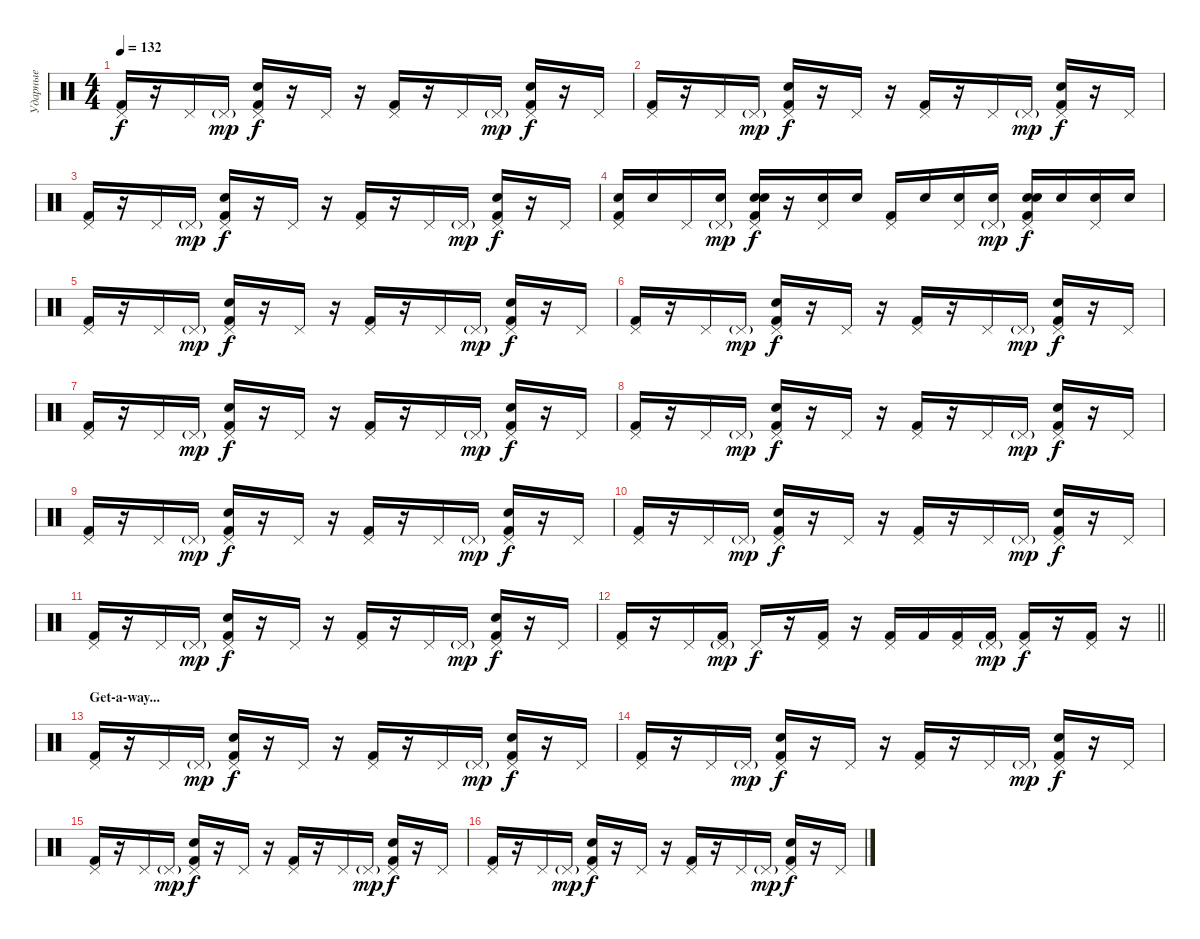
\track ("Ударные" "Ударные") {instrument percussion}
\staff {score}
\articulation defaults
\ts (4 4)
\tempo 132
\clef neutral
\ks c
("Pedal Hi-Hat (hit)" "Kick (hit) 2").16{dy f} r.16 "Pedal Hi-Hat (hit)".16 "Pedal Hi-Hat (hit)"{g}.16{dy mp} ("Pedal Hi-Hat (hit)" "Snare (hit) 2" "Kick (hit) 2").16{dy f} r.16 "Pedal Hi-Hat (hit)".16 r.16 ("Pedal Hi-Hat (hit)" "Kick (hit) 2").16 r.16 "Pedal Hi-Hat (hit)".16 "Pedal Hi-Hat (hit)"{g}.16{dy mp} ("Pedal Hi-Hat (hit)" "Snare (hit) 2" "Kick (hit) 2").16{dy f} r.16 "Pedal Hi-Hat (hit)".16 |
("Pedal Hi-Hat (hit)" "Kick (hit) 2").16 r.16 "Pedal Hi-Hat (hit)".16 "Pedal Hi-Hat (hit)"{g}.16{dy mp} ("Pedal Hi-Hat (hit)" "Snare (hit) 2" "Kick (hit) 2").16{dy f} r.16 "Pedal Hi-Hat (hit)".16 r.16 ("Pedal Hi-Hat (hit)" "Kick (hit) 2").16 r.16 "Pedal Hi-Hat (hit)".16 "Pedal Hi-Hat (hit)"{g}.16{dy mp} ("Pedal Hi-Hat (hit)" "Snare (hit) 2" "Kick (hit) 2").16{dy f} r.16 "Pedal Hi-Hat (hit)".16 |
("Pedal Hi-Hat (hit)" "Kick (hit) 2").16 r.16 "Pedal Hi-Hat (hit)".16 "Pedal Hi-Hat (hit)"{g}.16{dy mp} ("Pedal Hi-Hat (hit)" "Snare (hit) 2" "Kick (hit) 2").16{dy f} r.16 "Pedal Hi-Hat (hit)".16 r.16 ("Pedal Hi-Hat (hit)" "Kick (hit) 2").16 r.16 "Pedal Hi-Hat (hit)".16 "Pedal Hi-Hat (hit)"{g}.16{dy mp} ("Pedal Hi-Hat (hit)" "Snare (hit) 2" "Kick (hit) 2").16{dy f} r.16 "Pedal Hi-Hat (hit)".16 |
("Pedal Hi-Hat (hit)" "Electric Snare (hit)" "Kick (hit) 2").16 "Electric Snare (hit)".16 "Pedal Hi-Hat (hit)".16 ("Pedal Hi-Hat (hit)"{g} "Electric Snare (hit)").16{dy mp} ("Pedal Hi-Hat (hit)" "Electric Snare (hit)" "Snare (hit) 2" "Kick (hit) 2").16{dy f} r.16 ("Pedal Hi-Hat (hit)" "Electric Snare (hit)").16 "Electric Snare (hit)".16 ("Pedal Hi-Hat (hit)" "Kick (hit) 2").16 "Electric Snare (hit)".16 ("Pedal Hi-Hat (hit)" "Electric Snare (hit)").16 ("Pedal Hi-Hat (hit)"{g} "Electric Snare (hit)").16{dy mp} ("Pedal Hi-Hat (hit)" "Electric Snare (hit)" "Snare (hit) 2" "Kick (hit) 2").16{dy f} "Electric Snare (hit)".16 ("Pedal Hi-Hat (hit)" "Electric Snare (hit)").16 "Electric Snare (hit)".16 |
("Pedal Hi-Hat (hit)" "Kick (hit) 2").16 r.16 "Pedal Hi-Hat (hit)".16 "Pedal Hi-Hat (hit)"{g}.16{dy mp} ("Pedal Hi-Hat (hit)" "Snare (hit) 2" "Kick (hit) 2").16{dy f} r.16 "Pedal Hi-Hat (hit)".16 r.16 ("Pedal Hi-Hat (hit)" "Kick (hit) 2").16 r.16 "Pedal Hi-Hat (hit)".16 "Pedal Hi-Hat (hit)"{g}.16{dy mp} ("Pedal Hi-Hat (hit)" "Snare (hit) 2" "Kick (hit) 2").16{dy f} r.16 "Pedal Hi-Hat (hit)".16 |
("Pedal Hi-Hat (hit)" "Kick (hit) 2").16 r.16 "Pedal Hi-Hat (hit)".16 "Pedal Hi-Hat (hit)"{g}.16{dy mp} ("Pedal Hi-Hat (hit)" "Snare (hit) 2" "Kick (hit) 2").16{dy f} r.16 "Pedal Hi-Hat (hit)".16 r.16 ("Pedal Hi-Hat (hit)" "Kick (hit) 2").16 r.16 "Pedal Hi-Hat (hit)".16 "Pedal Hi-Hat (hit)"{g}.16{dy mp} ("Pedal Hi-Hat (hit)" "Snare (hit) 2" "Kick (hit) 2").16{dy f} r.16 "Pedal Hi-Hat (hit)".16 |
("Pedal Hi-Hat (hit)" "Kick (hit) 2").16 r.16 "Pedal Hi-Hat (hit)".16 "Pedal Hi-Hat (hit)"{g}.16{dy mp} ("Pedal Hi-Hat (hit)" "Snare (hit) 2" "Kick (hit) 2").16{dy f} r.16 "Pedal Hi-Hat (hit)".16 r.16 ("Pedal Hi-Hat (hit)" "Kick (hit) 2").16 r.16 "Pedal Hi-Hat (hit)".16 "Pedal Hi-Hat (hit)"{g}.16{dy mp} ("Pedal Hi-Hat (hit)" "Snare (hit) 2" "Kick (hit) 2").16{dy f} r.16 "Pedal Hi-Hat (hit)".16 |
("Pedal Hi-Hat (hit)" "Kick (hit) 2").16 r.16 "Pedal Hi-Hat (hit)".16 "Pedal Hi-Hat (hit)"{g}.16{dy mp} ("Pedal Hi-Hat (hit)" "Snare (hit) 2" "Kick (hit) 2").16{dy f} r.16 "Pedal Hi-Hat (hit)".16 r.16 ("Pedal Hi-Hat (hit)" "Kick (hit) 2").16 r.16 "Pedal Hi-Hat (hit)".16 "Pedal Hi-Hat (hit)"{g}.16{dy mp} ("Pedal Hi-Hat (hit)" "Snare (hit) 2" "Kick (hit) 2").16{dy f} r.16 "Pedal Hi-Hat (hit)".16 |
("Pedal Hi-Hat (hit)" "Kick (hit) 2").16 r.16 "Pedal Hi-Hat (hit)".16 "Pedal Hi-Hat (hit)"{g}.16{dy mp} ("Pedal Hi-Hat (hit)" "Snare (hit) 2" "Kick (hit) 2").16{dy f} r.16 "Pedal Hi-Hat (hit)".16 r.16 ("Pedal Hi-Hat (hit)" "Kick (hit) 2").16 r.16 "Pedal Hi-Hat (hit)".16 "Pedal Hi-Hat (hit)"{g}.16{dy mp} ("Pedal Hi-Hat (hit)" "Snare (hit) 2" "Kick (hit) 2").16{dy f} r.16 "Pedal Hi-Hat (hit)".16 |
("Pedal Hi-Hat (hit)" "Kick (hit) 2").16 r.16 "Pedal Hi-Hat (hit)".16 "Pedal Hi-Hat (hit)"{g}.16{dy mp} ("Pedal Hi-Hat (hit)" "Snare (hit) 2" "Kick (hit) 2").16{dy f} r.16 "Pedal Hi-Hat (hit)".16 r.16 ("Pedal Hi-Hat (hit)" "Kick (hit) 2").16 r.16 "Pedal Hi-Hat (hit)".16 "Pedal Hi-Hat (hit)"{g}.16{dy mp} ("Pedal Hi-Hat (hit)" "Snare (hit) 2" "Kick (hit) 2").16{dy f} r.16 "Pedal Hi-Hat (hit)".16 |
("Pedal Hi-Hat (hit)" "Kick (hit) 2").16 r.16 "Pedal Hi-Hat (hit)".16 "Pedal Hi-Hat (hit)"{g}.16{dy mp} ("Pedal Hi-Hat (hit)" "Snare (hit) 2" "Kick (hit) 2").16{dy f} r.16 "Pedal Hi-Hat (hit)".16 r.16 ("Pedal Hi-Hat (hit)" "Kick (hit) 2").16 r.16 "Pedal Hi-Hat (hit)".16 "Pedal Hi-Hat (hit)"{g}.16{dy mp} ("Pedal Hi-Hat (hit)" "Snare (hit) 2" "Kick (hit) 2").16{dy f} r.16 "Pedal Hi-Hat (hit)".16 |
\barLineRight lightlight
("Pedal Hi-Hat (hit)" "Kick (hit) 2").16 r.16 "Pedal Hi-Hat (hit)".16 ("Pedal Hi-Hat (hit)"{g} "Kick (hit) 2").16{dy mp} "Pedal Hi-Hat (hit)".16{dy f} r.16 ("Pedal Hi-Hat (hit)" "Kick (hit) 2").16 r.16 ("Pedal Hi-Hat (hit)" "Kick (hit) 2").16 "Kick (hit) 2".16 ("Pedal Hi-Hat (hit)" "Kick (hit) 2").16 ("Pedal Hi-Hat (hit)"{g} "Kick (hit) 2").16{dy mp} ("Pedal Hi-Hat (hit)" "Kick (hit) 2").16{dy f} r.16 ("Pedal Hi-Hat (hit)" "Kick (hit) 2").16 r.16 |
\section ("" "Get-a-way...")
("Pedal Hi-Hat (hit)" "Kick (hit) 2").16 r.16 "Pedal Hi-Hat (hit)".16 "Pedal Hi-Hat (hit)"{g}.16{dy mp} ("Pedal Hi-Hat (hit)" "Snare (hit) 2" "Kick (hit) 2").16{dy f} r.16 "Pedal Hi-Hat (hit)".16 r.16 ("Pedal Hi-Hat (hit)" "Kick (hit) 2").16 r.16 "Pedal Hi-Hat (hit)".16 "Pedal Hi-Hat (hit)"{g}.16{dy mp} ("Pedal Hi-Hat (hit)" "Snare (hit) 2" "Kick (hit) 2").16{dy f} r.16 "Pedal Hi-Hat (hit)".16 |
("Pedal Hi-Hat (hit)" "Kick (hit) 2").16 r.16 "Pedal Hi-Hat (hit)".16 "Pedal Hi-Hat (hit)"{g}.16{dy mp} ("Pedal Hi-Hat (hit)" "Snare (hit) 2" "Kick (hit) 2").16{dy f} r.16 "Pedal Hi-Hat (hit)".16 r.16 ("Pedal Hi-Hat (hit)" "Kick (hit) 2").16 r.16 "Pedal Hi-Hat (hit)".16 "Pedal Hi-Hat (hit)"{g}.16{dy mp} ("Pedal Hi-Hat (hit)" "Snare (hit) 2" "Kick (hit) 2").16{dy f} r.16 "Pedal Hi-Hat (hit)".16 |
("Pedal Hi-Hat (hit)" "Kick (hit) 2").16 r.16 "Pedal Hi-Hat (hit)".16 "Pedal Hi-Hat (hit)"{g}.16{dy mp} ("Pedal Hi-Hat (hit)" "Snare (hit) 2" "Kick (hit) 2").16{dy f} r.16 "Pedal Hi-Hat (hit)".16 r.16 ("Pedal Hi-Hat (hit)" "Kick (hit) 2").16 r.16 "Pedal Hi-Hat (hit)".16 "Pedal Hi-Hat (hit)"{g}.16{dy mp} ("Pedal Hi-Hat (hit)" "Snare (hit) 2" "Kick (hit) 2").16{dy f} r.16 "Pedal Hi-Hat (hit)".16 |
("Pedal Hi-Hat (hit)" "Kick (hit) 2").16 r.16 "Pedal Hi-Hat (hit)".16 "Pedal Hi-Hat (hit)"{g}.16{dy mp} ("Pedal Hi-Hat (hit)" "Snare (hit) 2" "Kick (hit) 2").16{dy f} r.16 "Pedal Hi-Hat (hit)".16 r.16 ("Pedal Hi-Hat (hit)" "Kick (hit) 2").16 r.16 "Pedal Hi-Hat (hit)".16 "Pedal Hi-Hat (hit)"{g}.16{dy mp} ("Pedal Hi-Hat (hit)" "Snare (hit) 2" "Kick (hit) 2").16{dy f} r.16 "Pedal Hi-Hat (hit)".16
